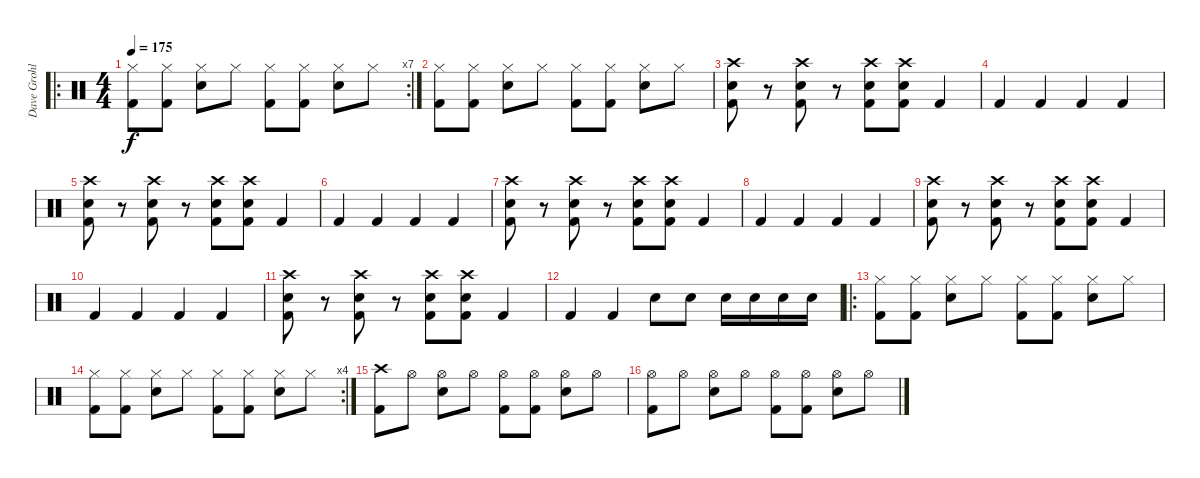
\track ("Dave Grohl" "Dave Grohl") {instrument percussion}
\staff {score}
\articulation defaults
\ro
\rc 7
\ts (4 4)
\tempo 175
\clef neutral
\ks c
("Hi-Hat (closed)" "Kick (hit) 2").8{dy f} ("Hi-Hat (closed)" "Kick (hit) 2").8 ("Hi-Hat (closed)" "Electric Snare (hit)").8 "Hi-Hat (closed)".8 ("Hi-Hat (closed)" "Kick (hit) 2").8 ("Hi-Hat (closed)" "Kick (hit) 2").8 ("Hi-Hat (closed)" "Electric Snare (hit)").8 "Hi-Hat (closed)".8 |
("Hi-Hat (closed)" "Kick (hit) 2").8 ("Hi-Hat (closed)" "Kick (hit) 2").8 ("Hi-Hat (closed)" "Electric Snare (hit)").8 "Hi-Hat (closed)".8 ("Hi-Hat (closed)" "Kick (hit) 2").8 ("Hi-Hat (closed)" "Kick (hit) 2").8 ("Hi-Hat (closed)" "Electric Snare (hit)").8 "Hi-Hat (closed)".8 |
("Crash high (hit)" "Electric Snare (hit)" "Kick (hit) 2").8 r.8 ("Crash high (hit)" "Electric Snare (hit)" "Kick (hit) 2").8 r.8 ("Crash high (hit)" "Electric Snare (hit)" "Kick (hit) 2").8 ("Crash high (hit)" "Electric Snare (hit)" "Kick (hit) 2").8 "Kick (hit) 2".4 |
"Kick (hit) 2".4 "Kick (hit) 2".4 "Kick (hit) 2".4 "Kick (hit) 2".4 |
("Crash high (hit)" "Electric Snare (hit)" "Kick (hit) 2").8 r.8 ("Crash high (hit)" "Electric Snare (hit)" "Kick (hit) 2").8 r.8 ("Crash high (hit)" "Electric Snare (hit)" "Kick (hit) 2").8 ("Crash high (hit)" "Electric Snare (hit)" "Kick (hit) 2").8 "Kick (hit) 2".4 |
"Kick (hit) 2".4 "Kick (hit) 2".4 "Kick (hit) 2".4 "Kick (hit) 2".4 |
("Crash high (hit)" "Electric Snare (hit)" "Kick (hit) 2").8 r.8 ("Crash high (hit)" "Electric Snare (hit)" "Kick (hit) 2").8 r.8 ("Crash high (hit)" "Electric Snare (hit)" "Kick (hit) 2").8 ("Crash high (hit)" "Electric Snare (hit)" "Kick (hit) 2").8 "Kick (hit) 2".4 |
"Kick (hit) 2".4 "Kick (hit) 2".4 "Kick (hit) 2".4 "Kick (hit) 2".4 |
("Crash high (hit)" "Electric Snare (hit)" "Kick (hit) 2").8 r.8 ("Crash high (hit)" "Electric Snare (hit)" "Kick (hit) 2").8 r.8 ("Crash high (hit)" "Electric Snare (hit)" "Kick (hit) 2").8 ("Crash high (hit)" "Electric Snare (hit)" "Kick (hit) 2").8 "Kick (hit) 2".4 |
"Kick (hit) 2".4 "Kick (hit) 2".4 "Kick (hit) 2".4 "Kick (hit) 2".4 |
("Crash high (hit)" "Electric Snare (hit)" "Kick (hit) 2").8 r.8 ("Crash high (hit)" "Electric Snare (hit)" "Kick (hit) 2").8 r.8 ("Crash high (hit)" "Electric Snare (hit)" "Kick (hit) 2").8 ("Crash high (hit)" "Electric Snare (hit)" "Kick (hit) 2").8 "Kick (hit) 2".4 |
"Kick (hit) 2".4 "Kick (hit) 2".4 "Electric Snare (hit)".8 "Electric Snare (hit)".8 "Electric Snare (hit)".16 "Electric Snare (hit)".16 "Electric Snare (hit)".16 "Electric Snare (hit)".16 |
\ro
("Hi-Hat (closed)" "Kick (hit) 2").8 ("Hi-Hat (closed)" "Kick (hit) 2").8 ("Hi-Hat (closed)" "Electric Snare (hit)").8 "Hi-Hat (closed)".8 ("Hi-Hat (closed)" "Kick (hit) 2").8 ("Hi-Hat (closed)" "Kick (hit) 2").8 ("Hi-Hat (closed)" "Electric Snare (hit)").8 "Hi-Hat (closed)".8 |
\rc 4
("Hi-Hat (closed)" "Kick (hit) 2").8 ("Hi-Hat (closed)" "Kick (hit) 2").8 ("Hi-Hat (closed)" "Electric Snare (hit)").8 "Hi-Hat (closed)".8 ("Hi-Hat (closed)" "Kick (hit) 2").8 ("Hi-Hat (closed)" "Kick (hit) 2").8 ("Hi-Hat (closed)" "Electric Snare (hit)").8 "Hi-Hat (closed)".8 |
("Crash high (hit)" "Kick (hit) 2").8 "Hi-Hat (open)".8 ("Hi-Hat (open)" "Electric Snare (hit)").8 "Hi-Hat (open)".8 ("Hi-Hat (open)" "Kick (hit) 2").8 ("Hi-Hat (open)" "Kick (hit) 2").8 ("Hi-Hat (open)" "Electric Snare (hit)").8 "Hi-Hat (open)".8 |
("Hi-Hat (open)" "Kick (hit) 2").8 "Hi-Hat (open)".8 ("Hi-Hat (open)" "Electric Snare (hit)").8 "Hi-Hat (open)".8 ("Hi-Hat (open)" "Kick (hit) 2").8 ("Hi-Hat (open)" "Kick (hit) 2").8 ("Hi-Hat (open)" "Electric Snare (hit)").8 "Hi-Hat (open)".8
